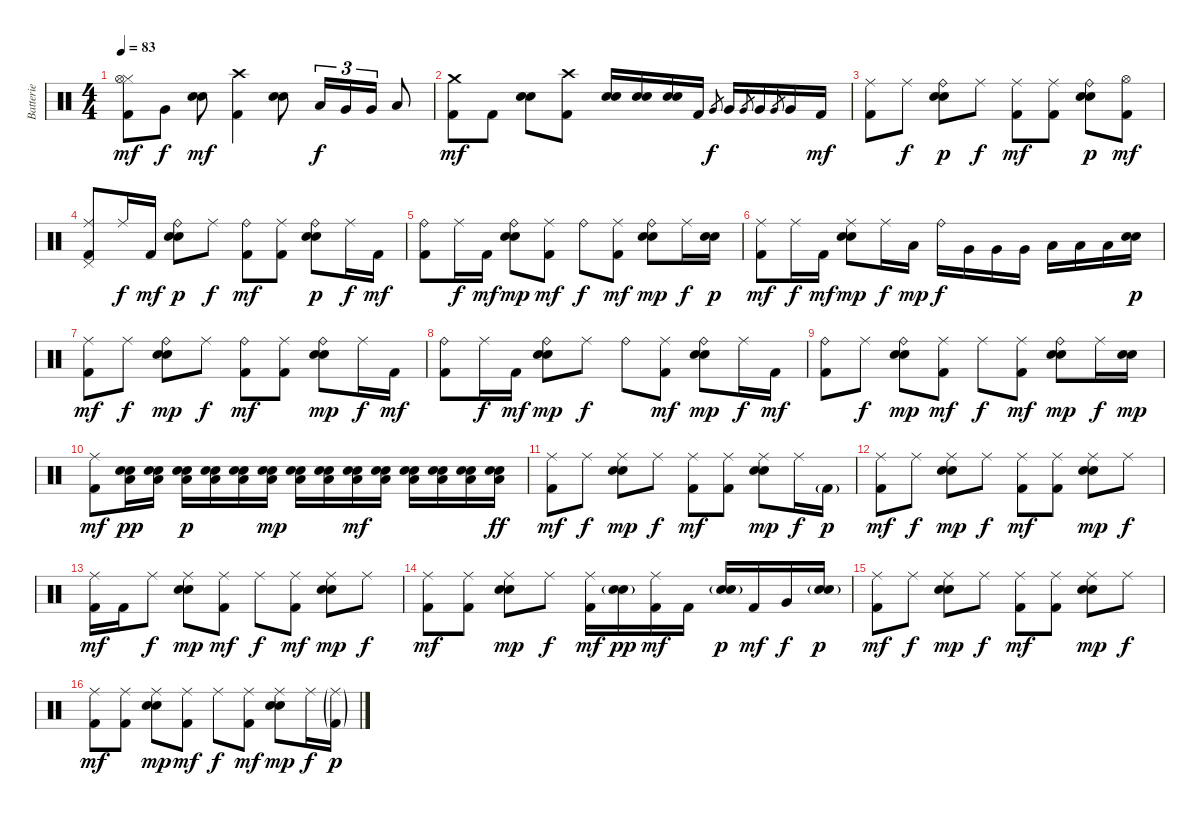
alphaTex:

\track ("Batterie" "Batterie") {instrument percussion}
\staff {score}
\articulation defaults
\ts (4 4)
\tempo 83
\clef neutral
\ks c
("Hi-Hat (closed)" "Hi-Hat (open)" "Kick (hit) 2").8{dy mf} "Very Low Tom (hit)".8{dy f} ("Electric Snare (hit)" "Snare (hit) 2").8{dy mf} ("Crash high (hit)" "Kick (hit) 2").4 ("Electric Snare (hit)" "Snare (hit) 2").8 "Low Tom (hit)".16{tu (3 2) dy f} "Very Low Tom (hit)".16{tu (3 2)} "Very Low Tom (hit)".16{tu (3 2)} "Low Floor Tom (hit)".8 |
("Crash medium (hit)" "Kick (hit) 2").8{dy mf} "Kick (hit) 2".8 ("Electric Snare (hit)" "Snare (hit) 2").8 ("Crash high (hit)" "Kick (hit) 2").8 ("Electric Snare (hit)" "Snare (hit) 2").16 ("Electric Snare (hit)" "Snare (hit) 2").16 ("Electric Snare (hit)" "Snare (hit) 2").16 "Kick (hit) 2".16 "Very Low Tom (hit)".8{gr dy f} "Very Low Tom (hit)".16 "Very Low Tom (hit)".8{gr} "Very Low Tom (hit)".16 "Very Low Tom (hit)".8{gr} "Very Low Tom (hit)".16 "Kick (hit) 2".16{dy mf} |
("Ride (middle)" "Kick (hit) 2").8 "Ride (middle)".8{dy f} ("Ride (bell)" "Electric Snare (hit)" "Snare (hit) 2").8{dy p} "Ride (middle)".8{dy f} ("Ride (middle)" "Kick (hit) 2").8{dy mf} ("Ride (middle)" "Kick (hit) 2").8 ("Ride (bell)" "Electric Snare (hit)" "Snare (hit) 2").8{dy p} ("Hi-Hat (open)" "Kick (hit) 2").8{dy mf} |
("Ride (middle)" "Pedal Hi-Hat (hit)" "Kick (hit) 2").8 "Ride (middle)".16{dy f} "Kick (hit) 2".16{dy mf} ("Ride (bell)" "Electric Snare (hit)" "Snare (hit) 2").8{dy p} "Ride (middle)".8{dy f} ("Ride (bell)" "Kick (hit) 2").8{dy mf} ("Ride (middle)" "Kick (hit) 2").8 ("Ride (bell)" "Electric Snare (hit)" "Snare (hit) 2").8{dy p} "Ride (middle)".16{dy f} "Kick (hit) 2".16{dy mf} |
("Ride (bell)" "Kick (hit) 2").8 "Ride (middle)".16{dy f} "Kick (hit) 2".16{dy mf} ("Ride (bell)" "Electric Snare (hit)" "Snare (hit) 2").8{dy mp} ("Ride (middle)" "Kick (hit) 2").8{dy mf} "Ride (bell)".8{dy f} ("Ride (middle)" "Kick (hit) 2").8{dy mf} ("Ride (bell)" "Electric Snare (hit)" "Snare (hit) 2").8{dy mp} "Ride (middle)".16{dy f} ("Electric Snare (hit)" "Snare (hit) 2").16{dy p} |
("Ride (middle)" "Kick (hit) 2").8{dy mf} "Ride (middle)".16{dy f} "Kick (hit) 2".16{dy mf} ("Ride (middle)" "Electric Snare (hit)" "Snare (hit) 2").8{dy mp} "Ride (middle)".16{dy f} "Low Tom (hit)".16{dy mp} "Ride (bell)".16{dy f} "Very Low Tom (hit)".16 "Very Low Tom (hit)".16 "Very Low Tom (hit)".16 "Low Floor Tom (hit)".16 "Low Floor Tom (hit)".16 "Low Floor Tom (hit)".16 ("Electric Snare (hit)" "Snare (hit) 2").16{dy p} |
("Ride (middle)" "Kick (hit) 2").8{dy mf} "Ride (middle)".8{dy f} ("Ride (bell)" "Electric Snare (hit)" "Snare (hit) 2").8{dy mp} "Ride (middle)".8{dy f} ("Ride (bell)" "Kick (hit) 2").8{dy mf} ("Ride (middle)" "Kick (hit) 2").8 ("Ride (bell)" "Electric Snare (hit)" "Snare (hit) 2").8{dy mp} "Ride (middle)".16{dy f} "Kick (hit) 2".16{dy mf} |
("Ride (bell)" "Kick (hit) 2").8 "Ride (middle)".16{dy f} "Kick (hit) 2".16{dy mf} ("Ride (bell)" "Electric Snare (hit)" "Snare (hit) 2").8{dy mp} "Ride (middle)".8{dy f} "Ride (bell)".8 ("Ride (middle)" "Kick (hit) 2").8{dy mf} ("Ride (bell)" "Electric Snare (hit)" "Snare (hit) 2").8{dy mp} "Ride (middle)".16{dy f} "Kick (hit) 2".16{dy mf} |
("Ride (bell)" "Kick (hit) 2").8 "Ride (middle)".8{dy f} ("Ride (bell)" "Electric Snare (hit)" "Snare (hit) 2").8{dy mp} ("Ride (middle)" "Kick (hit) 2").8{dy mf} "Ride (middle)".8{dy f} ("Ride (middle)" "Kick (hit) 2").8{dy mf} ("Ride (bell)" "Electric Snare (hit)" "Snare (hit) 2").8{dy mp} "Ride (middle)".16{dy f} ("Electric Snare (hit)" "Snare (hit) 2").16{dy mp} |
("Ride (middle)" "Kick (hit) 2").8{dy mf} ("Electric Snare (hit)" "Snare (hit) 2" "Low Floor Tom (hit)").16{dy pp} ("Electric Snare (hit)" "Snare (hit) 2" "Low Floor Tom (hit)").16 ("Electric Snare (hit)" "Snare (hit) 2" "Low Floor Tom (hit)").16{dy p} ("Electric Snare (hit)" "Snare (hit) 2" "Low Floor Tom (hit)").16 ("Electric Snare (hit)" "Snare (hit) 2" "Low Floor Tom (hit)").16 ("Electric Snare (hit)" "Snare (hit) 2" "Low Floor Tom (hit)").16{dy mp} ("Electric Snare (hit)" "Snare (hit) 2" "Low Floor Tom (hit)").16 ("Electric Snare (hit)" "Snare (hit) 2" "Low Floor Tom (hit)").16 ("Electric Snare (hit)" "Snare (hit) 2" "Low Floor Tom (hit)").16{dy mf} ("Electric Snare (hit)" "Snare (hit) 2" "Low Floor Tom (hit)").16 ("Electric Snare (hit)" "Snare (hit) 2" "Low Floor Tom (hit)").16 ("Electric Snare (hit)" "Snare (hit) 2" "Low Floor Tom (hit)").16 ("Electric Snare (hit)" "Snare (hit) 2" "Low Floor Tom (hit)").16 ("Electric Snare (hit)" "Snare (hit) 2" "Low Floor Tom (hit)").16{dy ff} |
("Ride (middle)" "Kick (hit) 2").8{dy mf} "Ride (middle)".8{dy f} ("Ride (middle)" "Electric Snare (hit)" "Snare (hit) 2").8{dy mp} "Ride (middle)".8{dy f} ("Ride (middle)" "Kick (hit) 2").8{dy mf} ("Ride (middle)" "Kick (hit) 2").8 ("Ride (middle)" "Electric Snare (hit)" "Snare (hit) 2").8{dy mp} "Ride (middle)".16{dy f} "Kick (hit) 2"{g}.16{dy p} |
("Ride (middle)" "Kick (hit) 2").8{dy mf} "Ride (middle)".8{dy f} ("Ride (middle)" "Electric Snare (hit)" "Snare (hit) 2").8{dy mp} "Ride (middle)".8{dy f} ("Ride (middle)" "Kick (hit) 2").8{dy mf} ("Ride (middle)" "Kick (hit) 2").8 ("Ride (middle)" "Electric Snare (hit)" "Snare (hit) 2").8{dy mp} "Ride (middle)".8{dy f} |
("Ride (middle)" "Kick (hit) 2").16{dy mf} "Kick (hit) 2".16 "Ride (middle)".8{dy f} ("Ride (middle)" "Electric Snare (hit)" "Snare (hit) 2").8{dy mp} ("Ride (middle)" "Kick (hit) 2").8{dy mf} "Ride (middle)".8{dy f} ("Ride (middle)" "Kick (hit) 2").8{dy mf} ("Ride (middle)" "Electric Snare (hit)" "Snare (hit) 2").8{dy mp} "Ride (middle)".8{dy f} |
("Ride (middle)" "Kick (hit) 2").8{dy mf} ("Ride (middle)" "Kick (hit) 2").8 ("Ride (middle)" "Electric Snare (hit)" "Snare (hit) 2").8{dy mp} "Ride (middle)".8{dy f} ("Ride (middle)" "Kick (hit) 2").16{dy mf} ("Electric Snare (hit)"{g} "Snare (hit) 2"{g}).16{dy pp} ("Ride (middle)" "Kick (hit) 2").16{dy mf} "Kick (hit) 2".16 ("Electric Snare (hit)"{g} "Snare (hit) 2"{g}).16{dy p} "Kick (hit) 2".16{dy mf} "Very Low Tom (hit)".16{dy f} ("Electric Snare (hit)"{g} "Snare (hit) 2"{g}).16{dy p} |
("Ride (middle)" "Kick (hit) 2").8{dy mf} "Ride (middle)".8{dy f} ("Ride (middle)" "Electric Snare (hit)" "Snare (hit) 2").8{dy mp} "Ride (middle)".8{dy f} ("Ride (middle)" "Kick (hit) 2").8{dy mf} ("Ride (middle)" "Kick (hit) 2").8 ("Ride (middle)" "Electric Snare (hit)" "Snare (hit) 2").8{dy mp} "Ride (middle)".8{dy f} |
("Ride (middle)" "Kick (hit) 2").8{dy mf} ("Ride (middle)" "Kick (hit) 2").8 ("Ride (middle)" "Electric Snare (hit)" "Snare (hit) 2").8{dy mp} ("Ride (middle)" "Kick (hit) 2").8{dy mf} "Ride (middle)".8{dy f} ("Ride (middle)" "Kick (hit) 2").8{dy mf} ("Ride (middle)" "Electric Snare (hit)" "Snare (hit) 2").8{dy mp} "Ride (middle)".16{dy f} ("Ride (middle)"{g} "Kick (hit) 2"{g}).16{dy p}
